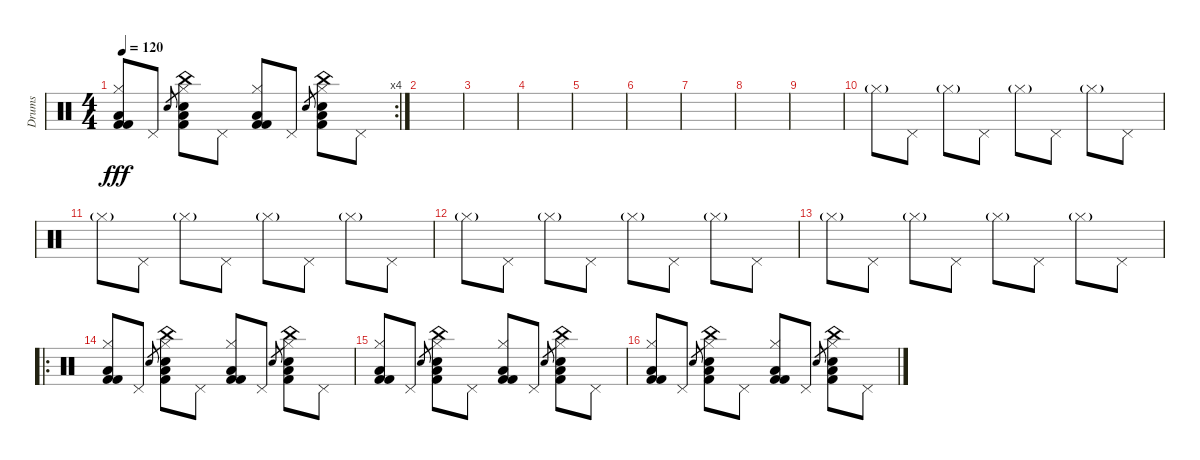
\track ("Drums" "Drums") {instrument percussion}
\staff {score}
\articulation defaults
\rc 4
\ts (4 4)
\tempo 120
\clef neutral
\ks c
("Kick (hit) 2" "Hi-Hat (closed)" "Low Floor Tom (hit)" "Kick (hit) 2").8{dy fff} "Pedal Hi-Hat (hit)".8 "Hand Clap (hit)".8{gr} ("Kick (hit) 2" "Hi-Hat (closed)" "Electric Snare (hit)" "China (hit)" "Low Floor Tom (hit)").8 "Pedal Hi-Hat (hit)".8 ("Kick (hit) 2" "Hi-Hat (closed)" "Low Floor Tom (hit)" "Kick (hit) 2").8 "Pedal Hi-Hat (hit)".8 "Hand Clap (hit)".8{gr} ("Kick (hit) 2" "Hi-Hat (closed)" "Electric Snare (hit)" "China (hit)" "Low Floor Tom (hit)").8 "Pedal Hi-Hat (hit)".8 |
|
|
|
|
|
|
|
|
"Hi-Hat (closed)"{g}.8{volume 10} "Pedal Hi-Hat (hit)".8 "Hi-Hat (closed)"{g}.8 "Pedal Hi-Hat (hit)".8 "Hi-Hat (closed)"{g}.8 "Pedal Hi-Hat (hit)".8 "Hi-Hat (closed)"{g}.8 "Pedal Hi-Hat (hit)".8 |
"Hi-Hat (closed)"{g}.8 "Pedal Hi-Hat (hit)".8 "Hi-Hat (closed)"{g}.8 "Pedal Hi-Hat (hit)".8 "Hi-Hat (closed)"{g}.8 "Pedal Hi-Hat (hit)".8 "Hi-Hat (closed)"{g}.8 "Pedal Hi-Hat (hit)".8 |
"Hi-Hat (closed)"{g}.8 "Pedal Hi-Hat (hit)".8 "Hi-Hat (closed)"{g}.8 "Pedal Hi-Hat (hit)".8 "Hi-Hat (closed)"{g}.8 "Pedal Hi-Hat (hit)".8 "Hi-Hat (closed)"{g}.8 "Pedal Hi-Hat (hit)".8 |
"Hi-Hat (closed)"{g}.8 "Pedal Hi-Hat (hit)".8 "Hi-Hat (closed)"{g}.8 "Pedal Hi-Hat (hit)".8 "Hi-Hat (closed)"{g}.8 "Pedal Hi-Hat (hit)".8 "Hi-Hat (closed)"{g}.8 "Pedal Hi-Hat (hit)".8 |
\ro
("Kick (hit) 2" "Hi-Hat (closed)" "Low Floor Tom (hit)" "Kick (hit) 2").8 "Pedal Hi-Hat (hit)".8 "Hand Clap (hit)".8{gr} ("Kick (hit) 2" "Hi-Hat (closed)" "Electric Snare (hit)" "China (hit)" "Low Floor Tom (hit)").8 "Pedal Hi-Hat (hit)".8 ("Kick (hit) 2" "Hi-Hat (closed)" "Low Floor Tom (hit)" "Kick (hit) 2").8 "Pedal Hi-Hat (hit)".8 "Hand Clap (hit)".8{gr} ("Kick (hit) 2" "Hi-Hat (closed)" "Electric Snare (hit)" "China (hit)" "Low Floor Tom (hit)").8 "Pedal Hi-Hat (hit)".8 |
("Kick (hit) 2" "Hi-Hat (closed)" "Low Floor Tom (hit)" "Kick (hit) 2").8 "Pedal Hi-Hat (hit)".8 "Hand Clap (hit)".8{gr} ("Kick (hit) 2" "Hi-Hat (closed)" "Electric Snare (hit)" "China (hit)" "Low Floor Tom (hit)").8 "Pedal Hi-Hat (hit)".8 ("Kick (hit) 2" "Hi-Hat (closed)" "Low Floor Tom (hit)" "Kick (hit) 2").8 "Pedal Hi-Hat (hit)".8 "Hand Clap (hit)".8{gr} ("Kick (hit) 2" "Hi-Hat (closed)" "Electric Snare (hit)" "China (hit)" "Low Floor Tom (hit)").8 "Pedal Hi-Hat (hit)".8 |
("Kick (hit) 2" "Hi-Hat (closed)" "Low Floor Tom (hit)" "Kick (hit) 2").8 "Pedal Hi-Hat (hit)".8 "Hand Clap (hit)".8{gr} ("Kick (hit) 2" "Hi-Hat (closed)" "Electric Snare (hit)" "China (hit)" "Low Floor Tom (hit)").8 "Pedal Hi-Hat (hit)".8 ("Kick (hit) 2" "Hi-Hat (closed)" "Low Floor Tom (hit)" "Kick (hit) 2").8 "Pedal Hi-Hat (hit)".8 "Hand Clap (hit)".8{gr} ("Kick (hit) 2" "Hi-Hat (closed)" "Electric Snare (hit)" "China (hit)" "Low Floor Tom (hit)").8 "Pedal Hi-Hat (hit)".8
